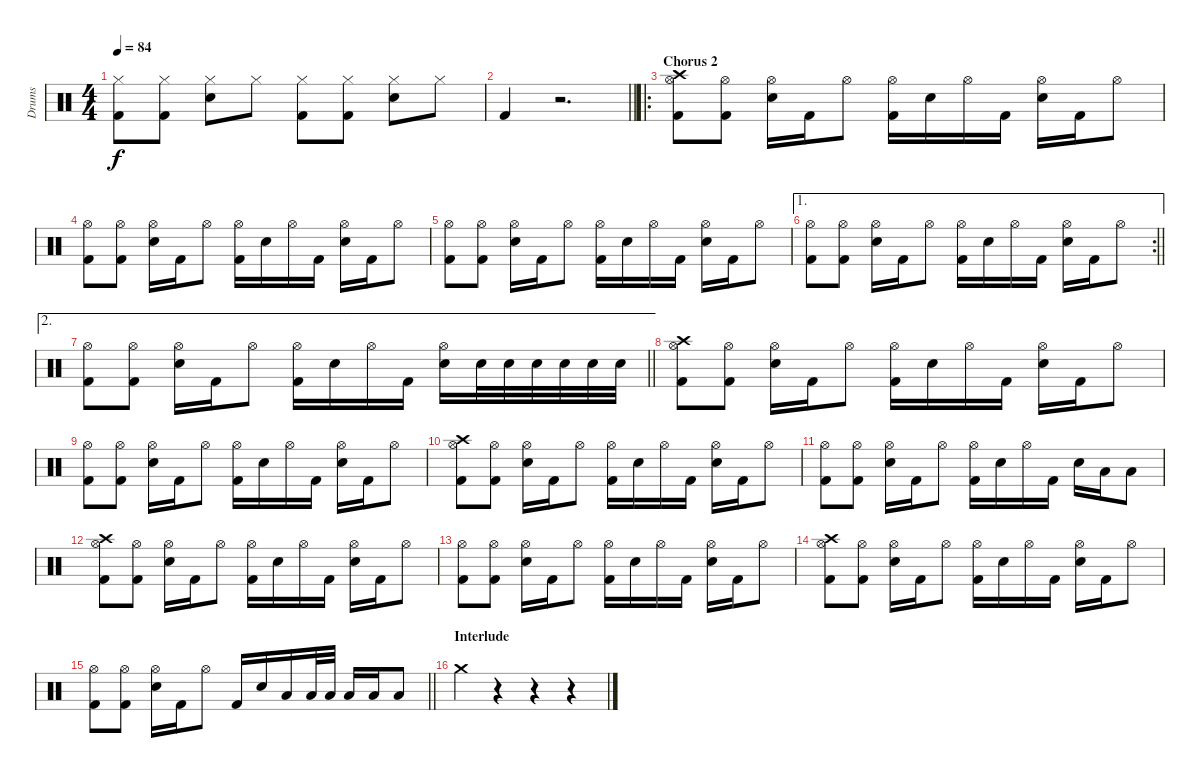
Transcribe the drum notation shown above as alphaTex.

\track ("Drums" "Drums") {instrument percussion}
\staff {score}
\articulation defaults
\ts (4 4)
\tempo 84
\clef neutral
\ks c
("Kick (hit) 2" "Hi-Hat (closed)").8{dy f} ("Kick (hit) 2" "Hi-Hat (closed)").8 ("Snare (hit) 2" "Hi-Hat (closed)").8 "Hi-Hat (closed)".8 ("Kick (hit) 2" "Hi-Hat (closed)").8 ("Kick (hit) 2" "Hi-Hat (closed)").8 ("Snare (hit) 2" "Hi-Hat (closed)").8 "Hi-Hat (closed)".8 |
\barLineRight lightlight "Kick (hit) 2".4
r.2{d} |
\ro
\section ("" "Chorus 2")
("Crash high (hit)" "Kick (hit) 2" "Hi-Hat (open)").8 ("Kick (hit) 2" "Hi-Hat (open)").8 ("Snare (hit) 2" "Hi-Hat (open)").16 "Kick (hit) 2".16 "Hi-Hat (open)".8 ("Kick (hit) 2" "Hi-Hat (open)").16 "Snare (hit) 2".16 "Hi-Hat (open)".16 "Kick (hit) 2".16 ("Snare (hit) 2" "Hi-Hat (open)").16 "Kick (hit) 2".16 "Hi-Hat (open)".8 |
("Kick (hit) 2" "Hi-Hat (open)").8 ("Kick (hit) 2" "Hi-Hat (open)").8 ("Snare (hit) 2" "Hi-Hat (open)").16 "Kick (hit) 2".16 "Hi-Hat (open)".8 ("Kick (hit) 2" "Hi-Hat (open)").16 "Snare (hit) 2".16 "Hi-Hat (open)".16 "Kick (hit) 2".16 ("Snare (hit) 2" "Hi-Hat (open)").16 "Kick (hit) 2".16 "Hi-Hat (open)".8 |
("Kick (hit) 2" "Hi-Hat (open)").8 ("Kick (hit) 2" "Hi-Hat (open)").8 ("Snare (hit) 2" "Hi-Hat (open)").16 "Kick (hit) 2".16 "Hi-Hat (open)".8 ("Kick (hit) 2" "Hi-Hat (open)").16 "Snare (hit) 2".16 "Hi-Hat (open)".16 "Kick (hit) 2".16 ("Snare (hit) 2" "Hi-Hat (open)").16 "Kick (hit) 2".16 "Hi-Hat (open)".8 |
\ae 1
\rc 2
\barLineRight lightlight
("Kick (hit) 2" "Hi-Hat (open)").8 ("Kick (hit) 2" "Hi-Hat (open)").8 ("Snare (hit) 2" "Hi-Hat (open)").16 "Kick (hit) 2".16 "Hi-Hat (open)".8 ("Kick (hit) 2" "Hi-Hat (open)").16 "Snare (hit) 2".16 "Hi-Hat (open)".16 "Kick (hit) 2".16 ("Snare (hit) 2" "Hi-Hat (open)").16 "Kick (hit) 2".16 "Hi-Hat (open)".8 |
\ae 2
\barLineRight lightlight
("Kick (hit) 2" "Hi-Hat (open)").8 ("Kick (hit) 2" "Hi-Hat (open)").8 ("Snare (hit) 2" "Hi-Hat (open)").16 "Kick (hit) 2".16 "Hi-Hat (open)".8 ("Kick (hit) 2" "Hi-Hat (open)").16 "Snare (hit) 2".16 "Hi-Hat (open)".16 "Kick (hit) 2".16 ("Snare (hit) 2" "Hi-Hat (open)").16 "Snare (hit) 2".32 "Snare (hit) 2".32 "Snare (hit) 2".32 "Snare (hit) 2".32 "Snare (hit) 2".32 "Snare (hit) 2".32 |
("Crash high (hit)" "Kick (hit) 2" "Hi-Hat (open)").8 ("Kick (hit) 2" "Hi-Hat (open)").8 ("Snare (hit) 2" "Hi-Hat (open)").16 "Kick (hit) 2".16 "Hi-Hat (open)".8 ("Kick (hit) 2" "Hi-Hat (open)").16 "Snare (hit) 2".16 "Hi-Hat (open)".16 "Kick (hit) 2".16 ("Snare (hit) 2" "Hi-Hat (open)").16 "Kick (hit) 2".16 "Hi-Hat (open)".8 |
("Kick (hit) 2" "Hi-Hat (open)").8 ("Kick (hit) 2" "Hi-Hat (open)").8 ("Snare (hit) 2" "Hi-Hat (open)").16 "Kick (hit) 2".16 "Hi-Hat (open)".8 ("Kick (hit) 2" "Hi-Hat (open)").16 "Snare (hit) 2".16 "Hi-Hat (open)".16 "Kick (hit) 2".16 ("Snare (hit) 2" "Hi-Hat (open)").16 "Kick (hit) 2".16 "Hi-Hat (open)".8 |
("Crash high (hit)" "Kick (hit) 2" "Hi-Hat (open)").8 ("Kick (hit) 2" "Hi-Hat (open)").8 ("Snare (hit) 2" "Hi-Hat (open)").16 "Kick (hit) 2".16 "Hi-Hat (open)".8 ("Kick (hit) 2" "Hi-Hat (open)").16 "Snare (hit) 2".16 "Hi-Hat (open)".16 "Kick (hit) 2".16 ("Snare (hit) 2" "Hi-Hat (open)").16 "Kick (hit) 2".16 "Hi-Hat (open)".8 |
("Kick (hit) 2" "Hi-Hat (open)").8 ("Kick (hit) 2" "Hi-Hat (open)").8 ("Snare (hit) 2" "Hi-Hat (open)").16 "Kick (hit) 2".16 "Hi-Hat (open)".8 ("Kick (hit) 2" "Hi-Hat (open)").16 "Snare (hit) 2".16 "Hi-Hat (open)".16 "Kick (hit) 2".16 "Snare (hit) 2".16 "Low Tom (hit)".16 "Low Tom (hit)".8 |
("Crash high (hit)" "Kick (hit) 2" "Hi-Hat (open)").8 ("Kick (hit) 2" "Hi-Hat (open)").8 ("Snare (hit) 2" "Hi-Hat (open)").16 "Kick (hit) 2".16 "Hi-Hat (open)".8 ("Kick (hit) 2" "Hi-Hat (open)").16 "Snare (hit) 2".16 "Hi-Hat (open)".16 "Kick (hit) 2".16 ("Snare (hit) 2" "Hi-Hat (open)").16 "Kick (hit) 2".16 "Hi-Hat (open)".8 |
("Kick (hit) 2" "Hi-Hat (open)").8 ("Kick (hit) 2" "Hi-Hat (open)").8 ("Snare (hit) 2" "Hi-Hat (open)").16 "Kick (hit) 2".16 "Hi-Hat (open)".8 ("Kick (hit) 2" "Hi-Hat (open)").16 "Snare (hit) 2".16 "Hi-Hat (open)".16 "Kick (hit) 2".16 ("Snare (hit) 2" "Hi-Hat (open)").16 "Kick (hit) 2".16 "Hi-Hat (open)".8 |
("Crash high (hit)" "Kick (hit) 2" "Hi-Hat (open)").8 ("Kick (hit) 2" "Hi-Hat (open)").8 ("Snare (hit) 2" "Hi-Hat (open)").16 "Kick (hit) 2".16 "Hi-Hat (open)".8 ("Kick (hit) 2" "Hi-Hat (open)").16 "Snare (hit) 2".16 "Hi-Hat (open)".16 "Kick (hit) 2".16 ("Snare (hit) 2" "Hi-Hat (open)").16 "Kick (hit) 2".16 "Hi-Hat (open)".8 |
\barLineRight lightlight
("Kick (hit) 2" "Hi-Hat (open)").8 ("Kick (hit) 2" "Hi-Hat (open)").8 ("Snare (hit) 2" "Hi-Hat (open)").16 "Kick (hit) 2".16 "Hi-Hat (open)".8 "Kick (hit) 2".16 "Snare (hit) 2".16 "Low Tom (hit)".16 "Low Tom (hit)".32 "Low Tom (hit)".32 "Low Tom (hit)".16 "Low Tom (hit)".16 "Low Tom (hit)".8 |
\section ("" "Interlude")
"Crash medium (hit)".4 r.4 r.4 r.4
